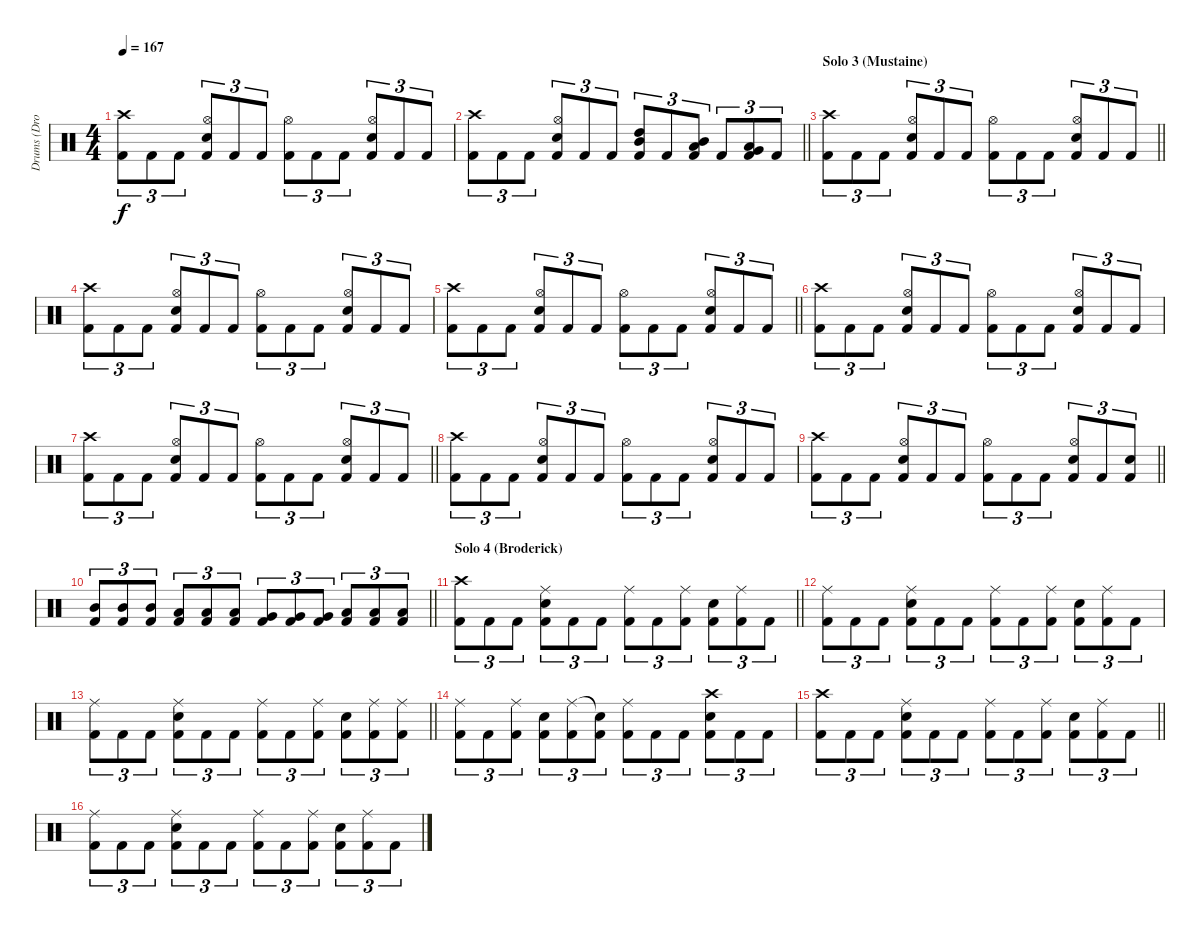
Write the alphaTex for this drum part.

\track ("Drums (Drover)" "Drums (Dro") {instrument percussion}
\staff {score}
\articulation defaults
\ts (4 4)
\tempo 167
\clef neutral
\ks c
("Crash high (hit)" "Kick (hit) 2").8{tu (3 2) dy f} "Kick (hit) 2".8{tu (3 2)} "Kick (hit) 2".8{tu (3 2)} ("Hi-Hat (open)" "Electric Snare (hit)" "Kick (hit) 2").8{tu (3 2)} "Kick (hit) 2".8{tu (3 2)} "Kick (hit) 2".8{tu (3 2)} ("Hi-Hat (open)" "Kick (hit) 2").8{tu (3 2)} "Kick (hit) 2".8{tu (3 2)} "Kick (hit) 2".8{tu (3 2)} ("Hi-Hat (open)" "Electric Snare (hit)" "Kick (hit) 2").8{tu (3 2)} "Kick (hit) 2".8{tu (3 2)} "Kick (hit) 2".8{tu (3 2)} |
\barLineRight lightlight
("Crash high (hit)" "Kick (hit) 2").8{tu (3 2)} "Kick (hit) 2".8{tu (3 2)} "Kick (hit) 2".8{tu (3 2)} ("Hi-Hat (open)" "Electric Snare (hit)" "Kick (hit) 2").8{tu (3 2)} "Kick (hit) 2".8{tu (3 2)} "Kick (hit) 2".8{tu (3 2)} ("High Tom (hit)" "Mid Tom (hit)" "Kick (hit) 2").8{tu (3 2)} "Kick (hit) 2".8{tu (3 2)} ("Mid Tom (hit)" "Low Tom (hit)" "Kick (hit) 2").8{tu (3 2)} "Kick (hit) 2".8{tu (3 2)} ("Low Tom (hit)" "Very Low Tom (hit)" "Kick (hit) 2").8{tu (3 2)} "Kick (hit) 2".8{tu (3 2)} |
\section ("" "Solo 3 (Mustaine)")
\barLineRight lightlight
("Crash high (hit)" "Kick (hit) 2").8{tu (3 2)} "Kick (hit) 2".8{tu (3 2)} "Kick (hit) 2".8{tu (3 2)} ("Hi-Hat (open)" "Electric Snare (hit)" "Kick (hit) 2").8{tu (3 2)} "Kick (hit) 2".8{tu (3 2)} "Kick (hit) 2".8{tu (3 2)} ("Hi-Hat (open)" "Kick (hit) 2").8{tu (3 2)} "Kick (hit) 2".8{tu (3 2)} "Kick (hit) 2".8{tu (3 2)} ("Hi-Hat (open)" "Electric Snare (hit)" "Kick (hit) 2").8{tu (3 2)} "Kick (hit) 2".8{tu (3 2)} "Kick (hit) 2".8{tu (3 2)} |
("Crash high (hit)" "Kick (hit) 2").8{tu (3 2)} "Kick (hit) 2".8{tu (3 2)} "Kick (hit) 2".8{tu (3 2)} ("Hi-Hat (open)" "Electric Snare (hit)" "Kick (hit) 2").8{tu (3 2)} "Kick (hit) 2".8{tu (3 2)} "Kick (hit) 2".8{tu (3 2)} ("Hi-Hat (open)" "Kick (hit) 2").8{tu (3 2)} "Kick (hit) 2".8{tu (3 2)} "Kick (hit) 2".8{tu (3 2)} ("Hi-Hat (open)" "Electric Snare (hit)" "Kick (hit) 2").8{tu (3 2)} "Kick (hit) 2".8{tu (3 2)} "Kick (hit) 2".8{tu (3 2)} |
\barLineRight lightlight
("Crash high (hit)" "Kick (hit) 2").8{tu (3 2)} "Kick (hit) 2".8{tu (3 2)} "Kick (hit) 2".8{tu (3 2)} ("Hi-Hat (open)" "Electric Snare (hit)" "Kick (hit) 2").8{tu (3 2)} "Kick (hit) 2".8{tu (3 2)} "Kick (hit) 2".8{tu (3 2)} ("Hi-Hat (open)" "Kick (hit) 2").8{tu (3 2)} "Kick (hit) 2".8{tu (3 2)} "Kick (hit) 2".8{tu (3 2)} ("Hi-Hat (open)" "Electric Snare (hit)" "Kick (hit) 2").8{tu (3 2)} "Kick (hit) 2".8{tu (3 2)} "Kick (hit) 2".8{tu (3 2)} |
("Crash high (hit)" "Kick (hit) 2").8{tu (3 2)} "Kick (hit) 2".8{tu (3 2)} "Kick (hit) 2".8{tu (3 2)} ("Hi-Hat (open)" "Electric Snare (hit)" "Kick (hit) 2").8{tu (3 2)} "Kick (hit) 2".8{tu (3 2)} "Kick (hit) 2".8{tu (3 2)} ("Hi-Hat (open)" "Kick (hit) 2").8{tu (3 2)} "Kick (hit) 2".8{tu (3 2)} "Kick (hit) 2".8{tu (3 2)} ("Hi-Hat (open)" "Electric Snare (hit)" "Kick (hit) 2").8{tu (3 2)} "Kick (hit) 2".8{tu (3 2)} "Kick (hit) 2".8{tu (3 2)} |
\barLineRight lightlight
("Crash high (hit)" "Kick (hit) 2").8{tu (3 2)} "Kick (hit) 2".8{tu (3 2)} "Kick (hit) 2".8{tu (3 2)} ("Hi-Hat (open)" "Electric Snare (hit)" "Kick (hit) 2").8{tu (3 2)} "Kick (hit) 2".8{tu (3 2)} "Kick (hit) 2".8{tu (3 2)} ("Hi-Hat (open)" "Kick (hit) 2").8{tu (3 2)} "Kick (hit) 2".8{tu (3 2)} "Kick (hit) 2".8{tu (3 2)} ("Hi-Hat (open)" "Electric Snare (hit)" "Kick (hit) 2").8{tu (3 2)} "Kick (hit) 2".8{tu (3 2)} "Kick (hit) 2".8{tu (3 2)} |
("Crash high (hit)" "Kick (hit) 2").8{tu (3 2)} "Kick (hit) 2".8{tu (3 2)} "Kick (hit) 2".8{tu (3 2)} ("Hi-Hat (open)" "Electric Snare (hit)" "Kick (hit) 2").8{tu (3 2)} "Kick (hit) 2".8{tu (3 2)} "Kick (hit) 2".8{tu (3 2)} ("Hi-Hat (open)" "Kick (hit) 2").8{tu (3 2)} "Kick (hit) 2".8{tu (3 2)} "Kick (hit) 2".8{tu (3 2)} ("Hi-Hat (open)" "Electric Snare (hit)" "Kick (hit) 2").8{tu (3 2)} "Kick (hit) 2".8{tu (3 2)} "Kick (hit) 2".8{tu (3 2)} |
\barLineRight lightlight
("Crash high (hit)" "Kick (hit) 2").8{tu (3 2)} "Kick (hit) 2".8{tu (3 2)} "Kick (hit) 2".8{tu (3 2)} ("Hi-Hat (open)" "Electric Snare (hit)" "Kick (hit) 2").8{tu (3 2)} "Kick (hit) 2".8{tu (3 2)} "Kick (hit) 2".8{tu (3 2)} ("Hi-Hat (open)" "Kick (hit) 2").8{tu (3 2)} "Kick (hit) 2".8{tu (3 2)} "Kick (hit) 2".8{tu (3 2)} ("Hi-Hat (open)" "Electric Snare (hit)" "Kick (hit) 2").8{tu (3 2)} "Kick (hit) 2".8{tu (3 2)} ("Electric Snare (hit)" "Kick (hit) 2").8{tu (3 2)} |
\barLineRight lightlight
("Mid Tom (hit)" "Kick (hit) 2").8{tu (3 2)} ("Mid Tom (hit)" "Kick (hit) 2").8{tu (3 2)} ("Mid Tom (hit)" "Kick (hit) 2").8{tu (3 2)} ("Low Tom (hit)" "Kick (hit) 2").8{tu (3 2)} ("Low Tom (hit)" "Kick (hit) 2").8{tu (3 2)} ("Low Tom (hit)" "Kick (hit) 2").8{tu (3 2)} ("Very Low Tom (hit)" "Kick (hit) 2").8{tu (3 2)} ("Very Low Tom (hit)" "Kick (hit) 2").8{tu (3 2)} ("Very Low Tom (hit)" "Kick (hit) 2").8{tu (3 2)} ("Low Floor Tom (hit)" "Kick (hit) 2").8{tu (3 2)} ("Low Floor Tom (hit)" "Kick (hit) 2").8{tu (3 2)} ("Low Floor Tom (hit)" "Kick (hit) 2").8{tu (3 2)} |
\section ("" "Solo 4 (Broderick)")
\barLineRight lightlight
("Crash high (hit)" "Kick (hit) 2").8{tu (3 2)} "Kick (hit) 2".8{tu (3 2)} "Kick (hit) 2".8{tu (3 2)} ("Ride (middle)" "Electric Snare (hit)" "Kick (hit) 2").8{tu (3 2)} "Kick (hit) 2".8{tu (3 2)} "Kick (hit) 2".8{tu (3 2)} ("Ride (middle)" "Kick (hit) 2").8{tu (3 2)} "Kick (hit) 2".8{tu (3 2)} ("Ride (middle)" "Kick (hit) 2").8{tu (3 2)} ("Electric Snare (hit)" "Kick (hit) 2").8{tu (3 2)} ("Ride (middle)" "Kick (hit) 2").8{tu (3 2)} "Kick (hit) 2".8{tu (3 2)} |
("Ride (middle)" "Kick (hit) 2").8{tu (3 2)} "Kick (hit) 2".8{tu (3 2)} "Kick (hit) 2".8{tu (3 2)} ("Electric Snare (hit)" "Ride (middle)" "Kick (hit) 2").8{tu (3 2)} "Kick (hit) 2".8{tu (3 2)} "Kick (hit) 2".8{tu (3 2)} ("Ride (middle)" "Kick (hit) 2").8{tu (3 2)} "Kick (hit) 2".8{tu (3 2)} ("Ride (middle)" "Kick (hit) 2").8{tu (3 2)} ("Electric Snare (hit)" "Kick (hit) 2").8{tu (3 2)} ("Ride (middle)" "Kick (hit) 2").8{tu (3 2)} "Kick (hit) 2".8{tu (3 2)} |
\barLineRight lightlight
("Ride (middle)" "Kick (hit) 2").8{tu (3 2)} "Kick (hit) 2".8{tu (3 2)} "Kick (hit) 2".8{tu (3 2)} ("Ride (middle)" "Electric Snare (hit)" "Kick (hit) 2").8{tu (3 2)} "Kick (hit) 2".8{tu (3 2)} "Kick (hit) 2".8{tu (3 2)} ("Ride (middle)" "Kick (hit) 2").8{tu (3 2)} "Kick (hit) 2".8{tu (3 2)} ("Ride (middle)" "Kick (hit) 2").8{tu (3 2)} ("Electric Snare (hit)" "Kick (hit) 2").8{tu (3 2)} ("Ride (middle)" "Kick (hit) 2").8{tu (3 2)} ("Ride (middle)" "Kick (hit) 2").8{tu (3 2)} |
("Ride (middle)" "Kick (hit) 2").8{tu (3 2)} "Kick (hit) 2".8{tu (3 2)} ("Ride (middle)" "Kick (hit) 2").8{tu (3 2)} ("Electric Snare (hit)" "Kick (hit) 2").8{tu (3 2)} ("Ride (middle)" "Kick (hit) 2").8{tu (3 2)} ("Snare (hit)"{t} "Kick (hit) 2").8{tu (3 2)} ("Ride (middle)" "Kick (hit) 2").8{tu (3 2)} "Kick (hit) 2".8{tu (3 2)} "Kick (hit) 2".8{tu (3 2)} ("Crash high (hit)" "Electric Snare (hit)" "Kick (hit) 2").8{tu (3 2)} "Kick (hit) 2".8{tu (3 2)} "Kick (hit) 2".8{tu (3 2)} |
\barLineRight lightlight
("Crash high (hit)" "Kick (hit) 2").8{tu (3 2)} "Kick (hit) 2".8{tu (3 2)} "Kick (hit) 2".8{tu (3 2)} ("Ride (middle)" "Electric Snare (hit)" "Kick (hit) 2").8{tu (3 2)} "Kick (hit) 2".8{tu (3 2)} "Kick (hit) 2".8{tu (3 2)} ("Ride (middle)" "Kick (hit) 2").8{tu (3 2)} "Kick (hit) 2".8{tu (3 2)} ("Ride (middle)" "Kick (hit) 2").8{tu (3 2)} ("Electric Snare (hit)" "Kick (hit) 2").8{tu (3 2)} ("Ride (middle)" "Kick (hit) 2").8{tu (3 2)} "Kick (hit) 2".8{tu (3 2)} |
("Ride (middle)" "Kick (hit) 2").8{tu (3 2)} "Kick (hit) 2".8{tu (3 2)} "Kick (hit) 2".8{tu (3 2)} ("Electric Snare (hit)" "Ride (middle)" "Kick (hit) 2").8{tu (3 2)} "Kick (hit) 2".8{tu (3 2)} "Kick (hit) 2".8{tu (3 2)} ("Ride (middle)" "Kick (hit) 2").8{tu (3 2)} "Kick (hit) 2".8{tu (3 2)} ("Ride (middle)" "Kick (hit) 2").8{tu (3 2)} ("Electric Snare (hit)" "Kick (hit) 2").8{tu (3 2)} ("Ride (middle)" "Kick (hit) 2").8{tu (3 2)} "Kick (hit) 2".8{tu (3 2)}
